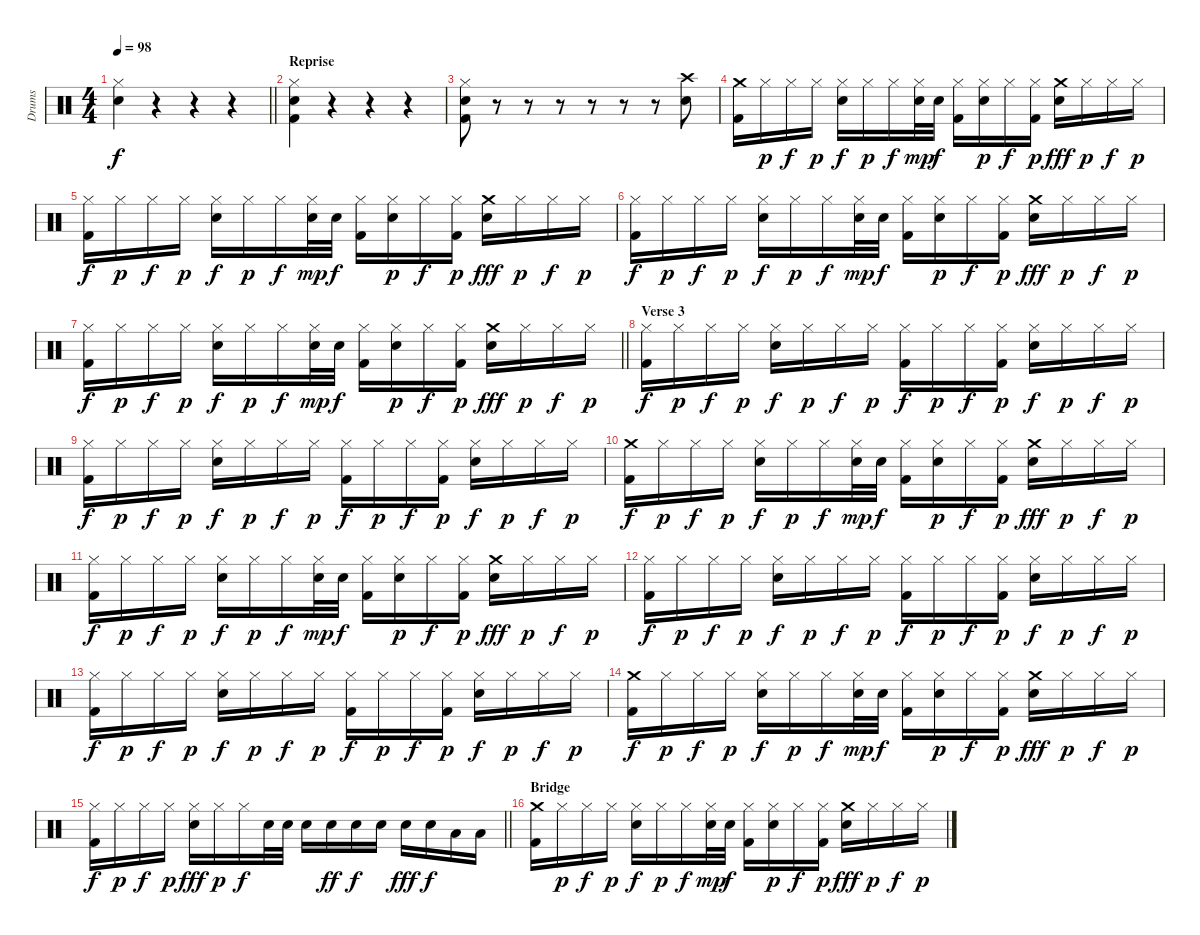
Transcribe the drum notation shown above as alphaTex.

\track ("Drums" "Drums") {instrument percussion}
\staff {score}
\articulation defaults
\ts (4 4)
\tempo 98
\clef neutral
\barLineRight lightlight
\ks c
("Hi-Hat (closed)" "Electric Snare (hit)").4{dy f} r.4 r.4 r.4 |
\section ("" "Reprise")
("Hi-Hat (closed)" "Electric Snare (hit)" "Kick (hit) 2").4 r.4 r.4 r.4 |
("Hi-Hat (closed)" "Electric Snare (hit)" "Kick (hit) 2").8 r.8 r.8 r.8 r.8 r.8 r.8 ("Crash high (hit)" "Snare (hit) 2").8 |
("Crash medium (hit)" "Kick (hit) 2").16 "Hi-Hat (closed)".16{dy p} "Hi-Hat (closed)".16{dy f} "Hi-Hat (closed)".16{dy p} ("Hi-Hat (closed)" "Electric Snare (hit)").16{dy f} "Hi-Hat (closed)".16{dy p} "Hi-Hat (closed)".16{dy f} ("Hi-Hat (closed)" "Electric Snare (hit)").32{dy mp} "Electric Snare (hit)".32{dy f} ("Hi-Hat (closed)" "Kick (hit) 2").16 ("Hi-Hat (closed)" "Electric Snare (hit)").16{dy p} "Hi-Hat (closed)".16{dy f} ("Hi-Hat (closed)" "Kick (hit) 2").16{dy p} ("Crash medium (hit)" "Electric Snare (hit)").16{dy fff} "Hi-Hat (closed)".16{dy p} "Hi-Hat (closed)".16{dy f} "Hi-Hat (closed)".16{dy p} |
("Hi-Hat (closed)" "Kick (hit) 2").16{dy f} "Hi-Hat (closed)".16{dy p} "Hi-Hat (closed)".16{dy f} "Hi-Hat (closed)".16{dy p} ("Hi-Hat (closed)" "Electric Snare (hit)").16{dy f} "Hi-Hat (closed)".16{dy p} "Hi-Hat (closed)".16{dy f} ("Hi-Hat (closed)" "Electric Snare (hit)").32{dy mp} "Electric Snare (hit)".32{dy f} ("Hi-Hat (closed)" "Kick (hit) 2").16 ("Hi-Hat (closed)" "Electric Snare (hit)").16{dy p} "Hi-Hat (closed)".16{dy f} ("Hi-Hat (closed)" "Kick (hit) 2").16{dy p} ("Crash medium (hit)" "Electric Snare (hit)").16{dy fff} "Hi-Hat (closed)".16{dy p} "Hi-Hat (closed)".16{dy f} "Hi-Hat (closed)".16{dy p} |
("Hi-Hat (closed)" "Kick (hit) 2").16{dy f} "Hi-Hat (closed)".16{dy p} "Hi-Hat (closed)".16{dy f} "Hi-Hat (closed)".16{dy p} ("Hi-Hat (closed)" "Electric Snare (hit)").16{dy f} "Hi-Hat (closed)".16{dy p} "Hi-Hat (closed)".16{dy f} ("Hi-Hat (closed)" "Electric Snare (hit)").32{dy mp} "Electric Snare (hit)".32{dy f} ("Hi-Hat (closed)" "Kick (hit) 2").16 ("Hi-Hat (closed)" "Electric Snare (hit)").16{dy p} "Hi-Hat (closed)".16{dy f} ("Hi-Hat (closed)" "Kick (hit) 2").16{dy p} ("Crash medium (hit)" "Electric Snare (hit)").16{dy fff} "Hi-Hat (closed)".16{dy p} "Hi-Hat (closed)".16{dy f} "Hi-Hat (closed)".16{dy p} |
\barLineRight lightlight
("Hi-Hat (closed)" "Kick (hit) 2").16{dy f} "Hi-Hat (closed)".16{dy p} "Hi-Hat (closed)".16{dy f} "Hi-Hat (closed)".16{dy p} ("Hi-Hat (closed)" "Electric Snare (hit)").16{dy f} "Hi-Hat (closed)".16{dy p} "Hi-Hat (closed)".16{dy f} ("Hi-Hat (closed)" "Electric Snare (hit)").32{dy mp} "Electric Snare (hit)".32{dy f} ("Hi-Hat (closed)" "Kick (hit) 2").16 ("Hi-Hat (closed)" "Electric Snare (hit)").16{dy p} "Hi-Hat (closed)".16{dy f} ("Hi-Hat (closed)" "Kick (hit) 2").16{dy p} ("Crash medium (hit)" "Electric Snare (hit)").16{dy fff} "Hi-Hat (closed)".16{dy p} "Hi-Hat (closed)".16{dy f} "Hi-Hat (closed)".16{dy p} |
\section ("" "Verse 3")
("Hi-Hat (closed)" "Kick (hit) 2").16{dy f} "Hi-Hat (closed)".16{dy p} "Hi-Hat (closed)".16{dy f} "Hi-Hat (closed)".16{dy p} ("Hi-Hat (closed)" "Electric Snare (hit)").16{dy f} "Hi-Hat (closed)".16{dy p} "Hi-Hat (closed)".16{dy f} "Hi-Hat (closed)".16{dy p} ("Hi-Hat (closed)" "Kick (hit) 2").16{dy f} "Hi-Hat (closed)".16{dy p} "Hi-Hat (closed)".16{dy f} ("Hi-Hat (closed)" "Kick (hit) 2").16{dy p} ("Hi-Hat (closed)" "Electric Snare (hit)").16{dy f} "Hi-Hat (closed)".16{dy p} "Hi-Hat (closed)".16{dy f} "Hi-Hat (closed)".16{dy p} |
("Hi-Hat (closed)" "Kick (hit) 2").16{dy f} "Hi-Hat (closed)".16{dy p} "Hi-Hat (closed)".16{dy f} "Hi-Hat (closed)".16{dy p} ("Hi-Hat (closed)" "Electric Snare (hit)").16{dy f} "Hi-Hat (closed)".16{dy p} "Hi-Hat (closed)".16{dy f} "Hi-Hat (closed)".16{dy p} ("Hi-Hat (closed)" "Kick (hit) 2").16{dy f} "Hi-Hat (closed)".16{dy p} "Hi-Hat (closed)".16{dy f} ("Hi-Hat (closed)" "Kick (hit) 2").16{dy p} ("Hi-Hat (closed)" "Electric Snare (hit)").16{dy f} "Hi-Hat (closed)".16{dy p} "Hi-Hat (closed)".16{dy f} "Hi-Hat (closed)".16{dy p} |
("Crash medium (hit)" "Kick (hit) 2").16{dy f} "Hi-Hat (closed)".16{dy p} "Hi-Hat (closed)".16{dy f} "Hi-Hat (closed)".16{dy p} ("Hi-Hat (closed)" "Electric Snare (hit)").16{dy f} "Hi-Hat (closed)".16{dy p} "Hi-Hat (closed)".16{dy f} ("Hi-Hat (closed)" "Electric Snare (hit)").32{dy mp} "Electric Snare (hit)".32{dy f} ("Hi-Hat (closed)" "Kick (hit) 2").16 ("Hi-Hat (closed)" "Electric Snare (hit)").16{dy p} "Hi-Hat (closed)".16{dy f} ("Hi-Hat (closed)" "Kick (hit) 2").16{dy p} ("Crash medium (hit)" "Electric Snare (hit)").16{dy fff} "Hi-Hat (closed)".16{dy p} "Hi-Hat (closed)".16{dy f} "Hi-Hat (closed)".16{dy p} |
("Hi-Hat (closed)" "Kick (hit) 2").16{dy f} "Hi-Hat (closed)".16{dy p} "Hi-Hat (closed)".16{dy f} "Hi-Hat (closed)".16{dy p} ("Hi-Hat (closed)" "Electric Snare (hit)").16{dy f} "Hi-Hat (closed)".16{dy p} "Hi-Hat (closed)".16{dy f} ("Hi-Hat (closed)" "Electric Snare (hit)").32{dy mp} "Electric Snare (hit)".32{dy f} ("Hi-Hat (closed)" "Kick (hit) 2").16 ("Hi-Hat (closed)" "Electric Snare (hit)").16{dy p} "Hi-Hat (closed)".16{dy f} ("Hi-Hat (closed)" "Kick (hit) 2").16{dy p} ("Crash medium (hit)" "Electric Snare (hit)").16{dy fff} "Hi-Hat (closed)".16{dy p} "Hi-Hat (closed)".16{dy f} "Hi-Hat (closed)".16{dy p} |
("Hi-Hat (closed)" "Kick (hit) 2").16{dy f} "Hi-Hat (closed)".16{dy p} "Hi-Hat (closed)".16{dy f} "Hi-Hat (closed)".16{dy p} ("Hi-Hat (closed)" "Electric Snare (hit)").16{dy f} "Hi-Hat (closed)".16{dy p} "Hi-Hat (closed)".16{dy f} "Hi-Hat (closed)".16{dy p} ("Hi-Hat (closed)" "Kick (hit) 2").16{dy f} "Hi-Hat (closed)".16{dy p} "Hi-Hat (closed)".16{dy f} ("Hi-Hat (closed)" "Kick (hit) 2").16{dy p} ("Hi-Hat (closed)" "Electric Snare (hit)").16{dy f} "Hi-Hat (closed)".16{dy p} "Hi-Hat (closed)".16{dy f} "Hi-Hat (closed)".16{dy p} |
("Hi-Hat (closed)" "Kick (hit) 2").16{dy f} "Hi-Hat (closed)".16{dy p} "Hi-Hat (closed)".16{dy f} "Hi-Hat (closed)".16{dy p} ("Hi-Hat (closed)" "Electric Snare (hit)").16{dy f} "Hi-Hat (closed)".16{dy p} "Hi-Hat (closed)".16{dy f} "Hi-Hat (closed)".16{dy p} ("Hi-Hat (closed)" "Kick (hit) 2").16{dy f} "Hi-Hat (closed)".16{dy p} "Hi-Hat (closed)".16{dy f} ("Hi-Hat (closed)" "Kick (hit) 2").16{dy p} ("Hi-Hat (closed)" "Electric Snare (hit)").16{dy f} "Hi-Hat (closed)".16{dy p} "Hi-Hat (closed)".16{dy f} "Hi-Hat (closed)".16{dy p} |
("Crash medium (hit)" "Kick (hit) 2").16{dy f} "Hi-Hat (closed)".16{dy p} "Hi-Hat (closed)".16{dy f} "Hi-Hat (closed)".16{dy p} ("Hi-Hat (closed)" "Electric Snare (hit)").16{dy f} "Hi-Hat (closed)".16{dy p} "Hi-Hat (closed)".16{dy f} ("Hi-Hat (closed)" "Electric Snare (hit)").32{dy mp} "Electric Snare (hit)".32{dy f} ("Hi-Hat (closed)" "Kick (hit) 2").16 ("Hi-Hat (closed)" "Electric Snare (hit)").16{dy p} "Hi-Hat (closed)".16{dy f} ("Hi-Hat (closed)" "Kick (hit) 2").16{dy p} ("Crash medium (hit)" "Electric Snare (hit)").16{dy fff} "Hi-Hat (closed)".16{dy p} "Hi-Hat (closed)".16{dy f} "Hi-Hat (closed)".16{dy p} |
\barLineRight lightlight
("Hi-Hat (closed)" "Kick (hit) 2").16{dy f} "Hi-Hat (closed)".16{dy p} "Hi-Hat (closed)".16{dy f} "Hi-Hat (closed)".16{dy p} ("Hi-Hat (closed)" "Electric Snare (hit)").16{dy fff} "Hi-Hat (closed)".16{dy p} "Hi-Hat (closed)".16{dy f} "Snare (hit) 2".32 "Snare (hit) 2".32 "Electric Snare (hit)".16 "Electric Snare (hit)".16{dy ff} "Electric Snare (hit)".16{dy f} "Electric Snare (hit)".16 "Electric Snare (hit)".16{dy fff} "Electric Snare (hit)".16{dy f} "Low Tom (hit)".16 "Low Tom (hit)".16 |
\section ("" "Bridge")
("Crash medium (hit)" "Kick (hit) 2").16 "Hi-Hat (closed)".16{dy p} "Hi-Hat (closed)".16{dy f} "Hi-Hat (closed)".16{dy p} ("Hi-Hat (closed)" "Electric Snare (hit)").16{dy f} "Hi-Hat (closed)".16{dy p} "Hi-Hat (closed)".16{dy f} ("Hi-Hat (closed)" "Electric Snare (hit)").32{dy mp} "Electric Snare (hit)".32{dy f} ("Hi-Hat (closed)" "Kick (hit) 2").16 ("Hi-Hat (closed)" "Electric Snare (hit)").16{dy p} "Hi-Hat (closed)".16{dy f} ("Hi-Hat (closed)" "Kick (hit) 2").16{dy p} ("Crash medium (hit)" "Electric Snare (hit)").16{dy fff} "Hi-Hat (closed)".16{dy p} "Hi-Hat (closed)".16{dy f} "Hi-Hat (closed)".16{dy p}
